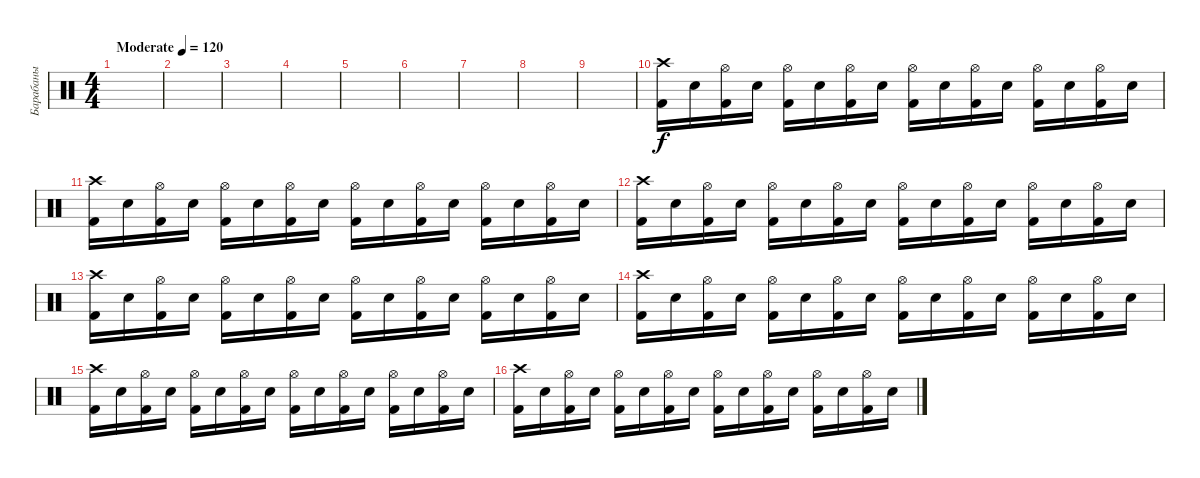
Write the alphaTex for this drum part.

\track ("Барабаны" "Барабаны") {instrument percussion}
\staff {score}
\articulation defaults
\ts (4 4)
\tempo (120 "Moderate")
\clef neutral
\ks c
|
|
|
|
|
|
|
|
|
("Crash high (hit)" "Kick (hit) 2").16 "Electric Snare (hit)".16 ("Hi-Hat (open)" "Kick (hit) 2").16 "Electric Snare (hit)".16 ("Hi-Hat (open)" "Kick (hit) 2").16 "Electric Snare (hit)".16 ("Hi-Hat (open)" "Kick (hit) 2").16 "Electric Snare (hit)".16 ("Hi-Hat (open)" "Kick (hit) 2").16 "Electric Snare (hit)".16 ("Hi-Hat (open)" "Kick (hit) 2").16 "Electric Snare (hit)".16 ("Hi-Hat (open)" "Kick (hit) 2").16 "Electric Snare (hit)".16 ("Hi-Hat (open)" "Kick (hit) 2").16 "Electric Snare (hit)".16 |
("Crash high (hit)" "Kick (hit) 2").16 "Electric Snare (hit)".16 ("Hi-Hat (open)" "Kick (hit) 2").16 "Electric Snare (hit)".16 ("Hi-Hat (open)" "Kick (hit) 2").16 "Electric Snare (hit)".16 ("Hi-Hat (open)" "Kick (hit) 2").16 "Electric Snare (hit)".16 ("Hi-Hat (open)" "Kick (hit) 2").16 "Electric Snare (hit)".16 ("Hi-Hat (open)" "Kick (hit) 2").16 "Electric Snare (hit)".16 ("Hi-Hat (open)" "Kick (hit) 2").16 "Electric Snare (hit)".16 ("Hi-Hat (open)" "Kick (hit) 2").16 "Electric Snare (hit)".16 |
("Crash high (hit)" "Kick (hit) 2").16 "Electric Snare (hit)".16 ("Hi-Hat (open)" "Kick (hit) 2").16 "Electric Snare (hit)".16 ("Hi-Hat (open)" "Kick (hit) 2").16 "Electric Snare (hit)".16 ("Hi-Hat (open)" "Kick (hit) 2").16 "Electric Snare (hit)".16 ("Hi-Hat (open)" "Kick (hit) 2").16 "Electric Snare (hit)".16 ("Hi-Hat (open)" "Kick (hit) 2").16 "Electric Snare (hit)".16 ("Hi-Hat (open)" "Kick (hit) 2").16 "Electric Snare (hit)".16 ("Hi-Hat (open)" "Kick (hit) 2").16 "Electric Snare (hit)".16 |
("Crash high (hit)" "Kick (hit) 2").16 "Electric Snare (hit)".16 ("Hi-Hat (open)" "Kick (hit) 2").16 "Electric Snare (hit)".16 ("Hi-Hat (open)" "Kick (hit) 2").16 "Electric Snare (hit)".16 ("Hi-Hat (open)" "Kick (hit) 2").16 "Electric Snare (hit)".16 ("Hi-Hat (open)" "Kick (hit) 2").16 "Electric Snare (hit)".16 ("Hi-Hat (open)" "Kick (hit) 2").16 "Electric Snare (hit)".16 ("Hi-Hat (open)" "Kick (hit) 2").16 "Electric Snare (hit)".16 ("Hi-Hat (open)" "Kick (hit) 2").16 "Electric Snare (hit)".16 |
("Crash high (hit)" "Kick (hit) 2").16 "Electric Snare (hit)".16 ("Hi-Hat (open)" "Kick (hit) 2").16 "Electric Snare (hit)".16 ("Hi-Hat (open)" "Kick (hit) 2").16 "Electric Snare (hit)".16 ("Hi-Hat (open)" "Kick (hit) 2").16 "Electric Snare (hit)".16 ("Hi-Hat (open)" "Kick (hit) 2").16 "Electric Snare (hit)".16 ("Hi-Hat (open)" "Kick (hit) 2").16 "Electric Snare (hit)".16 ("Hi-Hat (open)" "Kick (hit) 2").16 "Electric Snare (hit)".16 ("Hi-Hat (open)" "Kick (hit) 2").16 "Electric Snare (hit)".16 |
("Crash high (hit)" "Kick (hit) 2").16 "Electric Snare (hit)".16 ("Hi-Hat (open)" "Kick (hit) 2").16 "Electric Snare (hit)".16 ("Hi-Hat (open)" "Kick (hit) 2").16 "Electric Snare (hit)".16 ("Hi-Hat (open)" "Kick (hit) 2").16 "Electric Snare (hit)".16 ("Hi-Hat (open)" "Kick (hit) 2").16 "Electric Snare (hit)".16 ("Hi-Hat (open)" "Kick (hit) 2").16 "Electric Snare (hit)".16 ("Hi-Hat (open)" "Kick (hit) 2").16 "Electric Snare (hit)".16 ("Hi-Hat (open)" "Kick (hit) 2").16 "Electric Snare (hit)".16 |
("Crash high (hit)" "Kick (hit) 2").16 "Electric Snare (hit)".16 ("Hi-Hat (open)" "Kick (hit) 2").16 "Electric Snare (hit)".16 ("Hi-Hat (open)" "Kick (hit) 2").16 "Electric Snare (hit)".16 ("Hi-Hat (open)" "Kick (hit) 2").16 "Electric Snare (hit)".16 ("Hi-Hat (open)" "Kick (hit) 2").16 "Electric Snare (hit)".16 ("Hi-Hat (open)" "Kick (hit) 2").16 "Electric Snare (hit)".16 ("Hi-Hat (open)" "Kick (hit) 2").16 "Electric Snare (hit)".16 ("Hi-Hat (open)" "Kick (hit) 2").16 "Electric Snare (hit)".16
